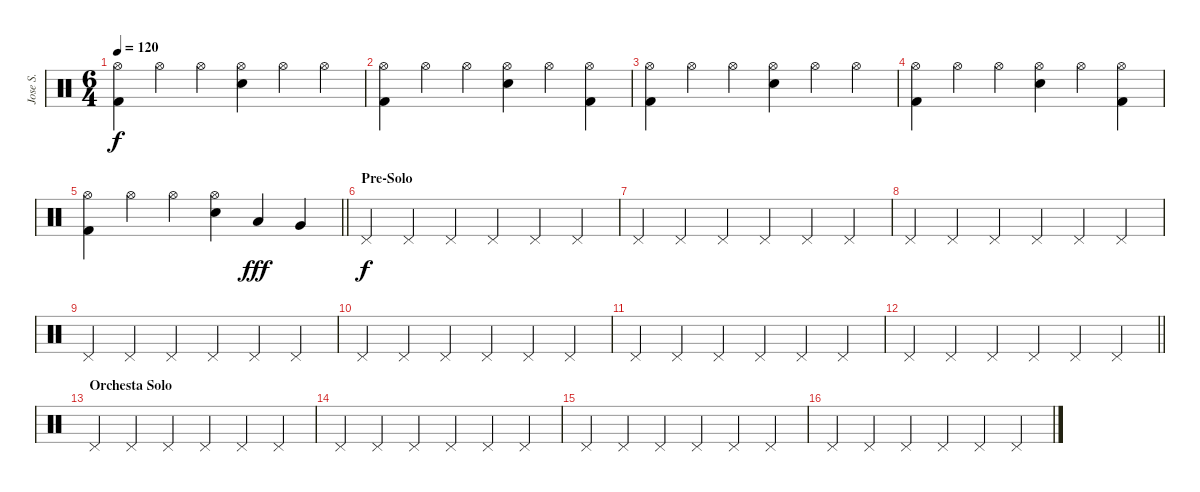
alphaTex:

\track ("Jose S." "Jose S.") {instrument percussion}
\staff {score}
\articulation defaults
\ts (6 4)
\tempo 120
\clef neutral
\ks c
("Hi-Hat (open)" "Kick (hit) 2").4{dy f} "Hi-Hat (open)".4 "Hi-Hat (open)".4 ("Hi-Hat (open)" "Snare (hit) 2").4 "Hi-Hat (open)".4 "Hi-Hat (open)".4 |
("Hi-Hat (open)" "Kick (hit) 2").4 "Hi-Hat (open)".4 "Hi-Hat (open)".4 ("Hi-Hat (open)" "Snare (hit) 2").4 "Hi-Hat (open)".4 ("Hi-Hat (open)" "Kick (hit) 2").4 |
("Hi-Hat (open)" "Kick (hit) 2").4 "Hi-Hat (open)".4 "Hi-Hat (open)".4 ("Hi-Hat (open)" "Snare (hit) 2").4 "Hi-Hat (open)".4 "Hi-Hat (open)".4 |
("Hi-Hat (open)" "Kick (hit) 2").4 "Hi-Hat (open)".4 "Hi-Hat (open)".4 ("Hi-Hat (open)" "Snare (hit) 2").4 "Hi-Hat (open)".4 ("Hi-Hat (open)" "Kick (hit) 2").4 |
\barLineRight lightlight
("Hi-Hat (open)" "Kick (hit) 2").4 "Hi-Hat (open)".4 "Hi-Hat (open)".4 ("Hi-Hat (open)" "Snare (hit) 2").4 "Low Tom (hit)".4{dy fff} "Very Low Tom (hit)".4 |
\section ("" "Pre-Solo")
"Pedal Hi-Hat (hit)".4{dy f} "Pedal Hi-Hat (hit)".4{volume 8} "Pedal Hi-Hat (hit)".4{volume 5} "Pedal Hi-Hat (hit)".4{volume 3} "Pedal Hi-Hat (hit)".4{volume 2} "Pedal Hi-Hat (hit)".4{volume 1} |
"Pedal Hi-Hat (hit)".4{volume 13} "Pedal Hi-Hat (hit)".4{volume 8} "Pedal Hi-Hat (hit)".4{volume 5} "Pedal Hi-Hat (hit)".4{volume 3} "Pedal Hi-Hat (hit)".4{volume 2} "Pedal Hi-Hat (hit)".4{volume 1} |
"Pedal Hi-Hat (hit)".4{volume 13} "Pedal Hi-Hat (hit)".4{volume 8} "Pedal Hi-Hat (hit)".4{volume 5} "Pedal Hi-Hat (hit)".4{volume 3} "Pedal Hi-Hat (hit)".4{volume 2} "Pedal Hi-Hat (hit)".4{volume 1} |
"Pedal Hi-Hat (hit)".4{volume 13} "Pedal Hi-Hat (hit)".4{volume 8} "Pedal Hi-Hat (hit)".4{volume 5} "Pedal Hi-Hat (hit)".4{volume 3} "Pedal Hi-Hat (hit)".4{volume 2} "Pedal Hi-Hat (hit)".4{volume 1} |
"Pedal Hi-Hat (hit)".4{volume 13} "Pedal Hi-Hat (hit)".4{volume 8} "Pedal Hi-Hat (hit)".4{volume 5} "Pedal Hi-Hat (hit)".4{volume 3} "Pedal Hi-Hat (hit)".4{volume 2} "Pedal Hi-Hat (hit)".4{volume 1} |
"Pedal Hi-Hat (hit)".4{volume 13} "Pedal Hi-Hat (hit)".4{volume 8} "Pedal Hi-Hat (hit)".4{volume 5} "Pedal Hi-Hat (hit)".4{volume 3} "Pedal Hi-Hat (hit)".4{volume 2} "Pedal Hi-Hat (hit)".4{volume 1} |
\barLineRight lightlight "Pedal Hi-Hat (hit)".4{volume 13} "Pedal Hi-Hat (hit)".4{volume 8} "Pedal Hi-Hat (hit)".4{volume 5} "Pedal Hi-Hat (hit)".4{volume 3} "Pedal Hi-Hat (hit)".4{volume 2} "Pedal Hi-Hat (hit)".4{volume 1}
|
\section ("" "Orchesta Solo")
"Pedal Hi-Hat (hit)".4 "Pedal Hi-Hat (hit)".4{volume 8} "Pedal Hi-Hat (hit)".4{volume 5} "Pedal Hi-Hat (hit)".4{volume 3} "Pedal Hi-Hat (hit)".4{volume 2} "Pedal Hi-Hat (hit)".4{volume 1} |
"Pedal Hi-Hat (hit)".4{volume 13} "Pedal Hi-Hat (hit)".4{volume 8} "Pedal Hi-Hat (hit)".4{volume 5} "Pedal Hi-Hat (hit)".4{volume 3} "Pedal Hi-Hat (hit)".4{volume 2} "Pedal Hi-Hat (hit)".4{volume 1} |
"Pedal Hi-Hat (hit)".4{volume 13} "Pedal Hi-Hat (hit)".4{volume 8} "Pedal Hi-Hat (hit)".4{volume 5} "Pedal Hi-Hat (hit)".4{volume 3} "Pedal Hi-Hat (hit)".4{volume 2} "Pedal Hi-Hat (hit)".4{volume 1} |
"Pedal Hi-Hat (hit)".4{volume 13} "Pedal Hi-Hat (hit)".4{volume 8} "Pedal Hi-Hat (hit)".4{volume 5} "Pedal Hi-Hat (hit)".4{volume 3} "Pedal Hi-Hat (hit)".4{volume 2} "Pedal Hi-Hat (hit)".4{volume 1}
